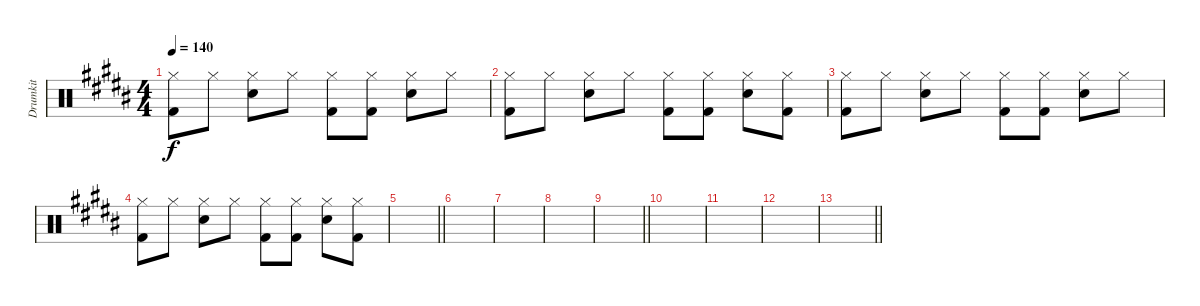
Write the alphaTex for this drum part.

\track ("Drumkit" "Drumkit") {instrument percussion}
\staff {score}
\articulation defaults
\ts (4 4)
\tempo 140
\clef neutral
\ks b
("Hi-Hat (closed)" "Kick (hit) 2").8{dy f} "Hi-Hat (closed)".8 ("Hi-Hat (closed)" "Snare (hit) 2").8 "Hi-Hat (closed)".8 ("Hi-Hat (closed)" "Kick (hit) 2").8 ("Hi-Hat (closed)" "Kick (hit) 2").8 ("Hi-Hat (closed)" "Snare (hit) 2").8 "Hi-Hat (closed)".8 |
("Hi-Hat (closed)" "Kick (hit) 2").8 "Hi-Hat (closed)".8 ("Hi-Hat (closed)" "Snare (hit) 2").8 "Hi-Hat (closed)".8 ("Hi-Hat (closed)" "Kick (hit) 2").8 ("Hi-Hat (closed)" "Kick (hit) 2").8 ("Hi-Hat (closed)" "Snare (hit) 2").8 ("Hi-Hat (closed)" "Kick (hit) 2").8 |
("Hi-Hat (closed)" "Kick (hit) 2").8 "Hi-Hat (closed)".8 ("Hi-Hat (closed)" "Snare (hit) 2").8 "Hi-Hat (closed)".8 ("Hi-Hat (closed)" "Kick (hit) 2").8 ("Hi-Hat (closed)" "Kick (hit) 2").8 ("Hi-Hat (closed)" "Snare (hit) 2").8 "Hi-Hat (closed)".8 |
("Hi-Hat (closed)" "Kick (hit) 2").8 "Hi-Hat (closed)".8 ("Hi-Hat (closed)" "Snare (hit) 2").8 "Hi-Hat (closed)".8 ("Hi-Hat (closed)" "Kick (hit) 2").8 ("Hi-Hat (closed)" "Kick (hit) 2").8 ("Hi-Hat (closed)" "Snare (hit) 2").8 ("Hi-Hat (closed)" "Kick (hit) 2").8 |
\barLineRight lightlight
|
|
|
|
\barLineRight lightlight
|
|
|
|
\barLineRight lightlight
